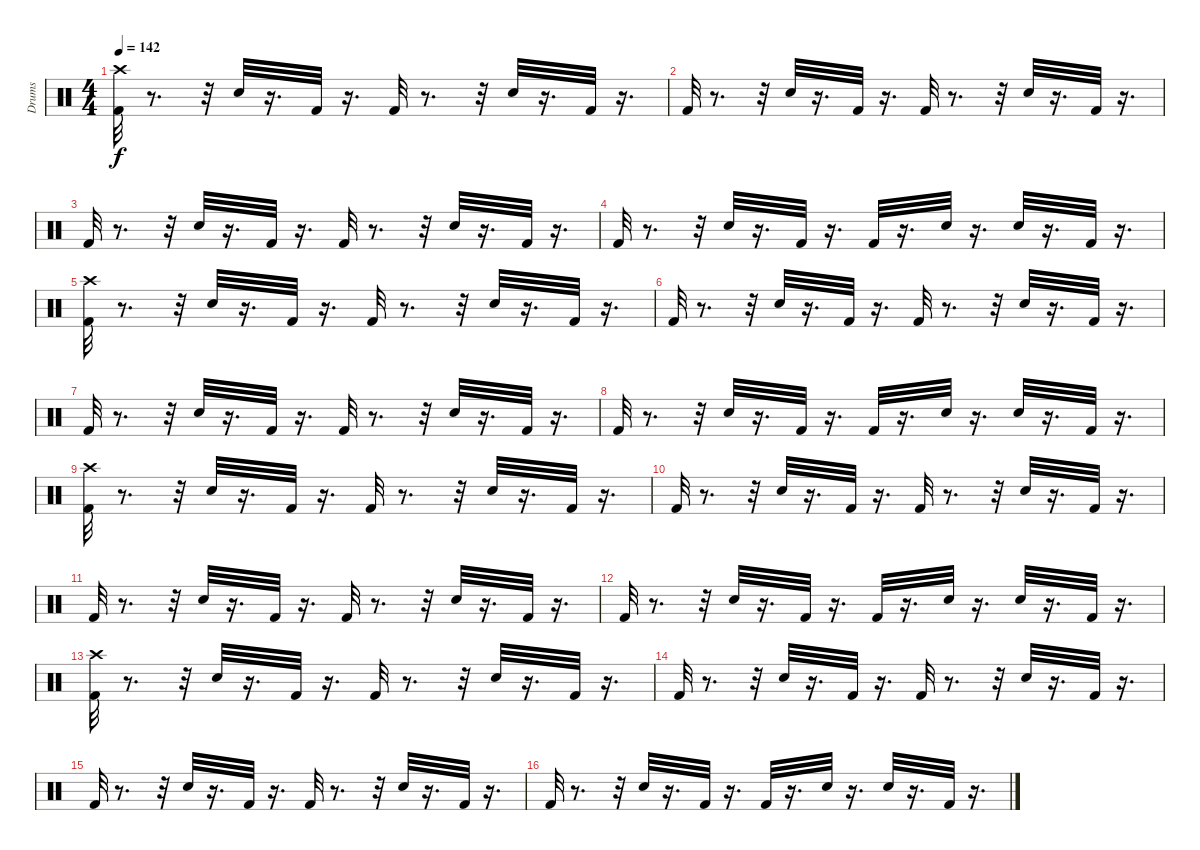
\track ("Drums" "Drums") {instrument percussion}
\staff {score}
\articulation defaults
\ts (4 4)
\tempo 142
\clef neutral
\ks c
("Crash high (hit)" "Kick (hit) 2").32{dy f} r.8{d} r.32 "Snare (hit) 2".32 r.16{d} "Kick (hit) 2".32 r.16{d} "Kick (hit) 2".32 r.8{d} r.32 "Snare (hit) 2".32 r.16{d} "Kick (hit) 2".32 r.16{d} |
"Kick (hit) 2".32 r.8{d} r.32 "Snare (hit) 2".32 r.16{d} "Kick (hit) 2".32 r.16{d} "Kick (hit) 2".32 r.8{d} r.32 "Snare (hit) 2".32 r.16{d} "Kick (hit) 2".32 r.16{d} |
"Kick (hit) 2".32 r.8{d} r.32 "Snare (hit) 2".32 r.16{d} "Kick (hit) 2".32 r.16{d} "Kick (hit) 2".32 r.8{d} r.32 "Snare (hit) 2".32 r.16{d} "Kick (hit) 2".32 r.16{d} |
"Kick (hit) 2".32 r.8{d} r.32 "Snare (hit) 2".32 r.16{d} "Kick (hit) 2".32 r.16{d} "Kick (hit) 2".32 r.16{d} "Snare (hit) 2".32 r.16{d} "Snare (hit) 2".32 r.16{d} "Kick (hit) 2".32 r.16{d} |
("Crash high (hit)" "Kick (hit) 2").32 r.8{d} r.32 "Snare (hit) 2".32 r.16{d} "Kick (hit) 2".32 r.16{d} "Kick (hit) 2".32 r.8{d} r.32 "Snare (hit) 2".32 r.16{d} "Kick (hit) 2".32 r.16{d} |
"Kick (hit) 2".32 r.8{d} r.32 "Snare (hit) 2".32 r.16{d} "Kick (hit) 2".32 r.16{d} "Kick (hit) 2".32 r.8{d} r.32 "Snare (hit) 2".32 r.16{d} "Kick (hit) 2".32 r.16{d} |
"Kick (hit) 2".32 r.8{d} r.32 "Snare (hit) 2".32 r.16{d} "Kick (hit) 2".32 r.16{d} "Kick (hit) 2".32 r.8{d} r.32 "Snare (hit) 2".32 r.16{d} "Kick (hit) 2".32 r.16{d} |
"Kick (hit) 2".32 r.8{d} r.32 "Snare (hit) 2".32 r.16{d} "Kick (hit) 2".32 r.16{d} "Kick (hit) 2".32 r.16{d} "Snare (hit) 2".32 r.16{d} "Snare (hit) 2".32 r.16{d} "Kick (hit) 2".32 r.16{d} |
("Crash high (hit)" "Kick (hit) 2").32 r.8{d} r.32 "Snare (hit) 2".32 r.16{d} "Kick (hit) 2".32 r.16{d} "Kick (hit) 2".32 r.8{d} r.32 "Snare (hit) 2".32 r.16{d} "Kick (hit) 2".32 r.16{d} |
"Kick (hit) 2".32 r.8{d} r.32 "Snare (hit) 2".32 r.16{d} "Kick (hit) 2".32 r.16{d} "Kick (hit) 2".32 r.8{d} r.32 "Snare (hit) 2".32 r.16{d} "Kick (hit) 2".32 r.16{d} |
"Kick (hit) 2".32 r.8{d} r.32 "Snare (hit) 2".32 r.16{d} "Kick (hit) 2".32 r.16{d} "Kick (hit) 2".32 r.8{d} r.32 "Snare (hit) 2".32 r.16{d} "Kick (hit) 2".32 r.16{d} |
"Kick (hit) 2".32 r.8{d} r.32 "Snare (hit) 2".32 r.16{d} "Kick (hit) 2".32 r.16{d} "Kick (hit) 2".32 r.16{d} "Snare (hit) 2".32 r.16{d} "Snare (hit) 2".32 r.16{d} "Kick (hit) 2".32 r.16{d} |
("Crash high (hit)" "Kick (hit) 2").32 r.8{d} r.32 "Snare (hit) 2".32 r.16{d} "Kick (hit) 2".32 r.16{d} "Kick (hit) 2".32 r.8{d} r.32 "Snare (hit) 2".32 r.16{d} "Kick (hit) 2".32 r.16{d} |
"Kick (hit) 2".32 r.8{d} r.32 "Snare (hit) 2".32 r.16{d} "Kick (hit) 2".32 r.16{d} "Kick (hit) 2".32 r.8{d} r.32 "Snare (hit) 2".32 r.16{d} "Kick (hit) 2".32 r.16{d} |
"Kick (hit) 2".32 r.8{d} r.32 "Snare (hit) 2".32 r.16{d} "Kick (hit) 2".32 r.16{d} "Kick (hit) 2".32 r.8{d} r.32 "Snare (hit) 2".32 r.16{d} "Kick (hit) 2".32 r.16{d} |
"Kick (hit) 2".32 r.8{d} r.32 "Snare (hit) 2".32 r.16{d} "Kick (hit) 2".32 r.16{d} "Kick (hit) 2".32 r.16{d} "Snare (hit) 2".32 r.16{d} "Snare (hit) 2".32 r.16{d} "Kick (hit) 2".32 r.16{d}
